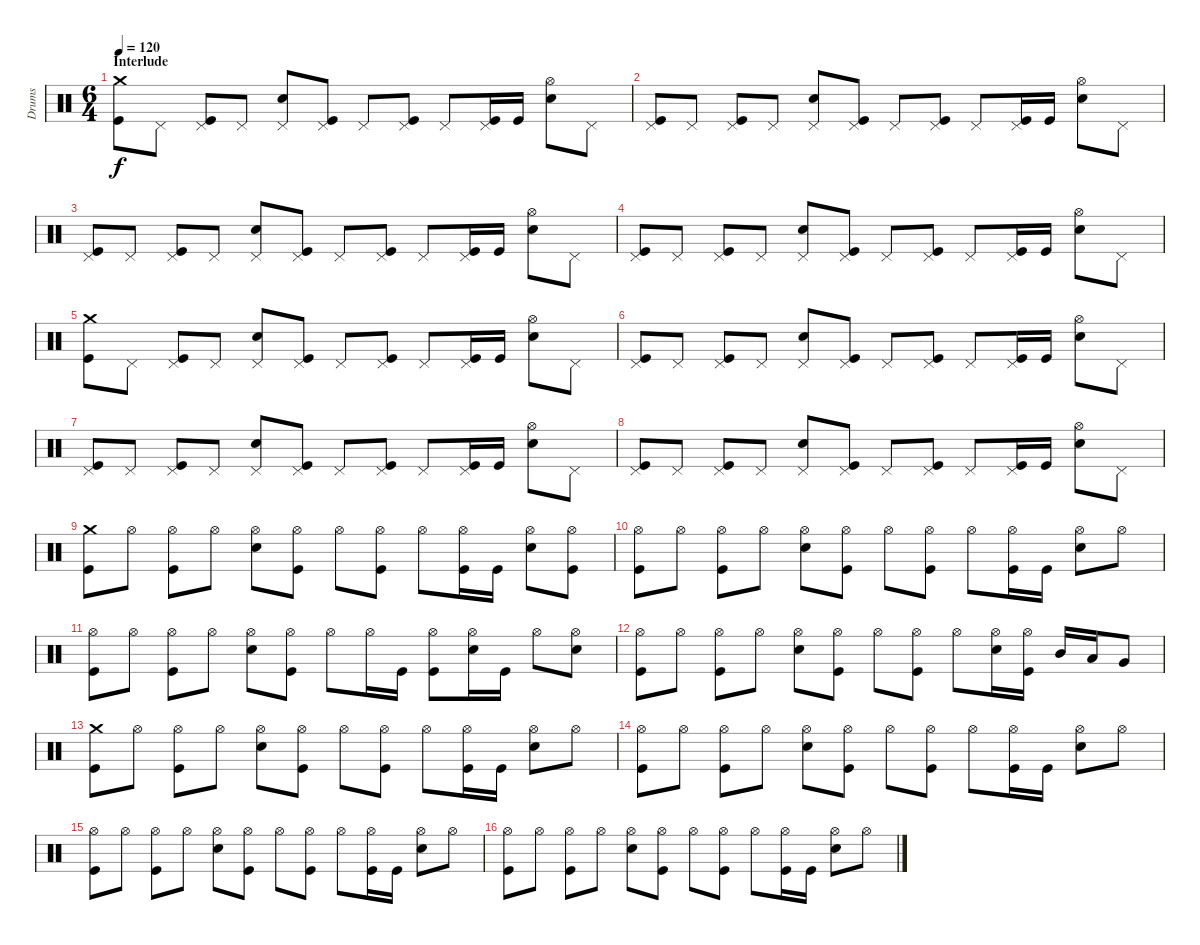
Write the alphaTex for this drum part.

\track ("Drums" "Drums") {instrument percussion}
\staff {score}
\articulation defaults
\ts (6 4)
\section ("" "Interlude")
\tempo 120
\clef neutral
\ks c
("Crash medium (hit)" "Kick (hit)").8{dy f} "Pedal Hi-Hat (hit)".8 ("Pedal Hi-Hat (hit)" "Kick (hit)").8 "Pedal Hi-Hat (hit)".8 ("Pedal Hi-Hat (hit)" "Electric Snare (hit)").8 ("Pedal Hi-Hat (hit)" "Kick (hit)").8 "Pedal Hi-Hat (hit)".8 ("Pedal Hi-Hat (hit)" "Kick (hit)").8 "Pedal Hi-Hat (hit)".8 ("Pedal Hi-Hat (hit)" "Kick (hit)").16 "Kick (hit)".16 ("Hi-Hat (open)" "Electric Snare (hit)").8 "Pedal Hi-Hat (hit)".8 |
("Pedal Hi-Hat (hit)" "Kick (hit)").8 "Pedal Hi-Hat (hit)".8 ("Pedal Hi-Hat (hit)" "Kick (hit)").8 "Pedal Hi-Hat (hit)".8 ("Pedal Hi-Hat (hit)" "Electric Snare (hit)").8 ("Pedal Hi-Hat (hit)" "Kick (hit)").8 "Pedal Hi-Hat (hit)".8 ("Pedal Hi-Hat (hit)" "Kick (hit)").8 "Pedal Hi-Hat (hit)".8 ("Pedal Hi-Hat (hit)" "Kick (hit)").16 "Kick (hit)".16 ("Hi-Hat (open)" "Electric Snare (hit)").8 "Pedal Hi-Hat (hit)".8 |
("Pedal Hi-Hat (hit)" "Kick (hit)").8 "Pedal Hi-Hat (hit)".8 ("Pedal Hi-Hat (hit)" "Kick (hit)").8 "Pedal Hi-Hat (hit)".8 ("Pedal Hi-Hat (hit)" "Electric Snare (hit)").8 ("Pedal Hi-Hat (hit)" "Kick (hit)").8 "Pedal Hi-Hat (hit)".8 ("Pedal Hi-Hat (hit)" "Kick (hit)").8 "Pedal Hi-Hat (hit)".8 ("Pedal Hi-Hat (hit)" "Kick (hit)").16 "Kick (hit)".16 ("Hi-Hat (open)" "Electric Snare (hit)").8 "Pedal Hi-Hat (hit)".8 |
("Pedal Hi-Hat (hit)" "Kick (hit)").8 "Pedal Hi-Hat (hit)".8 ("Pedal Hi-Hat (hit)" "Kick (hit)").8 "Pedal Hi-Hat (hit)".8 ("Pedal Hi-Hat (hit)" "Electric Snare (hit)").8 ("Pedal Hi-Hat (hit)" "Kick (hit)").8 "Pedal Hi-Hat (hit)".8 ("Pedal Hi-Hat (hit)" "Kick (hit)").8 "Pedal Hi-Hat (hit)".8 ("Pedal Hi-Hat (hit)" "Kick (hit)").16 "Kick (hit)".16 ("Hi-Hat (open)" "Electric Snare (hit)").8 "Pedal Hi-Hat (hit)".8 |
("Crash medium (hit)" "Kick (hit)").8 "Pedal Hi-Hat (hit)".8 ("Pedal Hi-Hat (hit)" "Kick (hit)").8 "Pedal Hi-Hat (hit)".8 ("Pedal Hi-Hat (hit)" "Electric Snare (hit)").8 ("Pedal Hi-Hat (hit)" "Kick (hit)").8 "Pedal Hi-Hat (hit)".8 ("Pedal Hi-Hat (hit)" "Kick (hit)").8 "Pedal Hi-Hat (hit)".8 ("Pedal Hi-Hat (hit)" "Kick (hit)").16 "Kick (hit)".16 ("Hi-Hat (open)" "Electric Snare (hit)").8 "Pedal Hi-Hat (hit)".8 |
("Pedal Hi-Hat (hit)" "Kick (hit)").8 "Pedal Hi-Hat (hit)".8 ("Pedal Hi-Hat (hit)" "Kick (hit)").8 "Pedal Hi-Hat (hit)".8 ("Pedal Hi-Hat (hit)" "Electric Snare (hit)").8 ("Pedal Hi-Hat (hit)" "Kick (hit)").8 "Pedal Hi-Hat (hit)".8 ("Pedal Hi-Hat (hit)" "Kick (hit)").8 "Pedal Hi-Hat (hit)".8 ("Pedal Hi-Hat (hit)" "Kick (hit)").16 "Kick (hit)".16 ("Hi-Hat (open)" "Electric Snare (hit)").8 "Pedal Hi-Hat (hit)".8 |
("Pedal Hi-Hat (hit)" "Kick (hit)").8 "Pedal Hi-Hat (hit)".8 ("Pedal Hi-Hat (hit)" "Kick (hit)").8 "Pedal Hi-Hat (hit)".8 ("Pedal Hi-Hat (hit)" "Electric Snare (hit)").8 ("Pedal Hi-Hat (hit)" "Kick (hit)").8 "Pedal Hi-Hat (hit)".8 ("Pedal Hi-Hat (hit)" "Kick (hit)").8 "Pedal Hi-Hat (hit)".8 ("Pedal Hi-Hat (hit)" "Kick (hit)").16 "Kick (hit)".16 ("Hi-Hat (open)" "Electric Snare (hit)").8 "Pedal Hi-Hat (hit)".8 |
("Pedal Hi-Hat (hit)" "Kick (hit)").8 "Pedal Hi-Hat (hit)".8 ("Pedal Hi-Hat (hit)" "Kick (hit)").8 "Pedal Hi-Hat (hit)".8 ("Pedal Hi-Hat (hit)" "Electric Snare (hit)").8 ("Pedal Hi-Hat (hit)" "Kick (hit)").8 "Pedal Hi-Hat (hit)".8 ("Pedal Hi-Hat (hit)" "Kick (hit)").8 "Pedal Hi-Hat (hit)".8 ("Pedal Hi-Hat (hit)" "Kick (hit)").16 "Kick (hit)".16 ("Hi-Hat (open)" "Electric Snare (hit)").8 "Pedal Hi-Hat (hit)".8 |
("Crash medium (hit)" "Kick (hit)").8 "Hi-Hat (open)".8 ("Hi-Hat (open)" "Kick (hit)").8 "Hi-Hat (open)".8 ("Hi-Hat (open)" "Electric Snare (hit)").8 ("Hi-Hat (open)" "Kick (hit)").8 "Hi-Hat (open)".8 ("Hi-Hat (open)" "Kick (hit)").8 "Hi-Hat (open)".8 ("Hi-Hat (open)" "Kick (hit)").16 "Kick (hit)".16 ("Hi-Hat (open)" "Electric Snare (hit)").8 ("Hi-Hat (open)" "Kick (hit)").8 |
("Hi-Hat (open)" "Kick (hit)").8 "Hi-Hat (open)".8 ("Hi-Hat (open)" "Kick (hit)").8 "Hi-Hat (open)".8 ("Hi-Hat (open)" "Electric Snare (hit)").8 ("Hi-Hat (open)" "Kick (hit)").8 "Hi-Hat (open)".8 ("Hi-Hat (open)" "Kick (hit)").8 "Hi-Hat (open)".8 ("Hi-Hat (open)" "Kick (hit)").16 "Kick (hit)".16 ("Hi-Hat (open)" "Electric Snare (hit)").8 "Hi-Hat (open)".8 |
("Hi-Hat (open)" "Kick (hit)").8 "Hi-Hat (open)".8 ("Hi-Hat (open)" "Kick (hit)").8 "Hi-Hat (open)".8 ("Hi-Hat (open)" "Electric Snare (hit)").8 ("Hi-Hat (open)" "Kick (hit)").8 "Hi-Hat (open)".8 "Hi-Hat (open)".16 "Kick (hit)".16 ("Hi-Hat (open)" "Kick (hit)").8 ("Hi-Hat (open)" "Electric Snare (hit)").16 "Kick (hit)".16 "Hi-Hat (open)".8 ("Hi-Hat (open)" "Electric Snare (hit)").8 |
("Hi-Hat (open)" "Kick (hit)").8 "Hi-Hat (open)".8 ("Hi-Hat (open)" "Kick (hit)").8 "Hi-Hat (open)".8 ("Hi-Hat (open)" "Electric Snare (hit)").8 ("Hi-Hat (open)" "Kick (hit)").8 "Hi-Hat (open)".8 ("Hi-Hat (open)" "Kick (hit)").8 "Hi-Hat (open)".8 ("Hi-Hat (open)" "Electric Snare (hit)").16 ("Hi-Hat (open)" "Kick (hit)").16 "Mid Tom (hit)".16 "Low Tom (hit)".16 "Very Low Tom (hit)".8 |
("Crash medium (hit)" "Kick (hit)").8 "Hi-Hat (open)".8 ("Hi-Hat (open)" "Kick (hit)").8 "Hi-Hat (open)".8 ("Hi-Hat (open)" "Electric Snare (hit)").8 ("Hi-Hat (open)" "Kick (hit)").8 "Hi-Hat (open)".8 ("Hi-Hat (open)" "Kick (hit)").8 "Hi-Hat (open)".8 ("Hi-Hat (open)" "Kick (hit)").16 "Kick (hit)".16 ("Hi-Hat (open)" "Electric Snare (hit)").8 "Hi-Hat (open)".8 |
("Hi-Hat (open)" "Kick (hit)").8 "Hi-Hat (open)".8 ("Hi-Hat (open)" "Kick (hit)").8 "Hi-Hat (open)".8 ("Hi-Hat (open)" "Electric Snare (hit)").8 ("Hi-Hat (open)" "Kick (hit)").8 "Hi-Hat (open)".8 ("Hi-Hat (open)" "Kick (hit)").8 "Hi-Hat (open)".8 ("Hi-Hat (open)" "Kick (hit)").16 "Kick (hit)".16 ("Hi-Hat (open)" "Electric Snare (hit)").8 "Hi-Hat (open)".8 |
("Hi-Hat (open)" "Kick (hit)").8 "Hi-Hat (open)".8 ("Hi-Hat (open)" "Kick (hit)").8 "Hi-Hat (open)".8 ("Hi-Hat (open)" "Electric Snare (hit)").8 ("Hi-Hat (open)" "Kick (hit)").8 "Hi-Hat (open)".8 ("Hi-Hat (open)" "Kick (hit)").8 "Hi-Hat (open)".8 ("Hi-Hat (open)" "Kick (hit)").16 "Kick (hit)".16 ("Hi-Hat (open)" "Electric Snare (hit)").8 "Hi-Hat (open)".8 |
("Hi-Hat (open)" "Kick (hit)").8 "Hi-Hat (open)".8 ("Hi-Hat (open)" "Kick (hit)").8 "Hi-Hat (open)".8 ("Hi-Hat (open)" "Electric Snare (hit)").8 ("Hi-Hat (open)" "Kick (hit)").8 "Hi-Hat (open)".8 ("Hi-Hat (open)" "Kick (hit)").8 "Hi-Hat (open)".8 ("Hi-Hat (open)" "Kick (hit)").16 "Kick (hit)".16 ("Hi-Hat (open)" "Electric Snare (hit)").8 "Hi-Hat (open)".8
